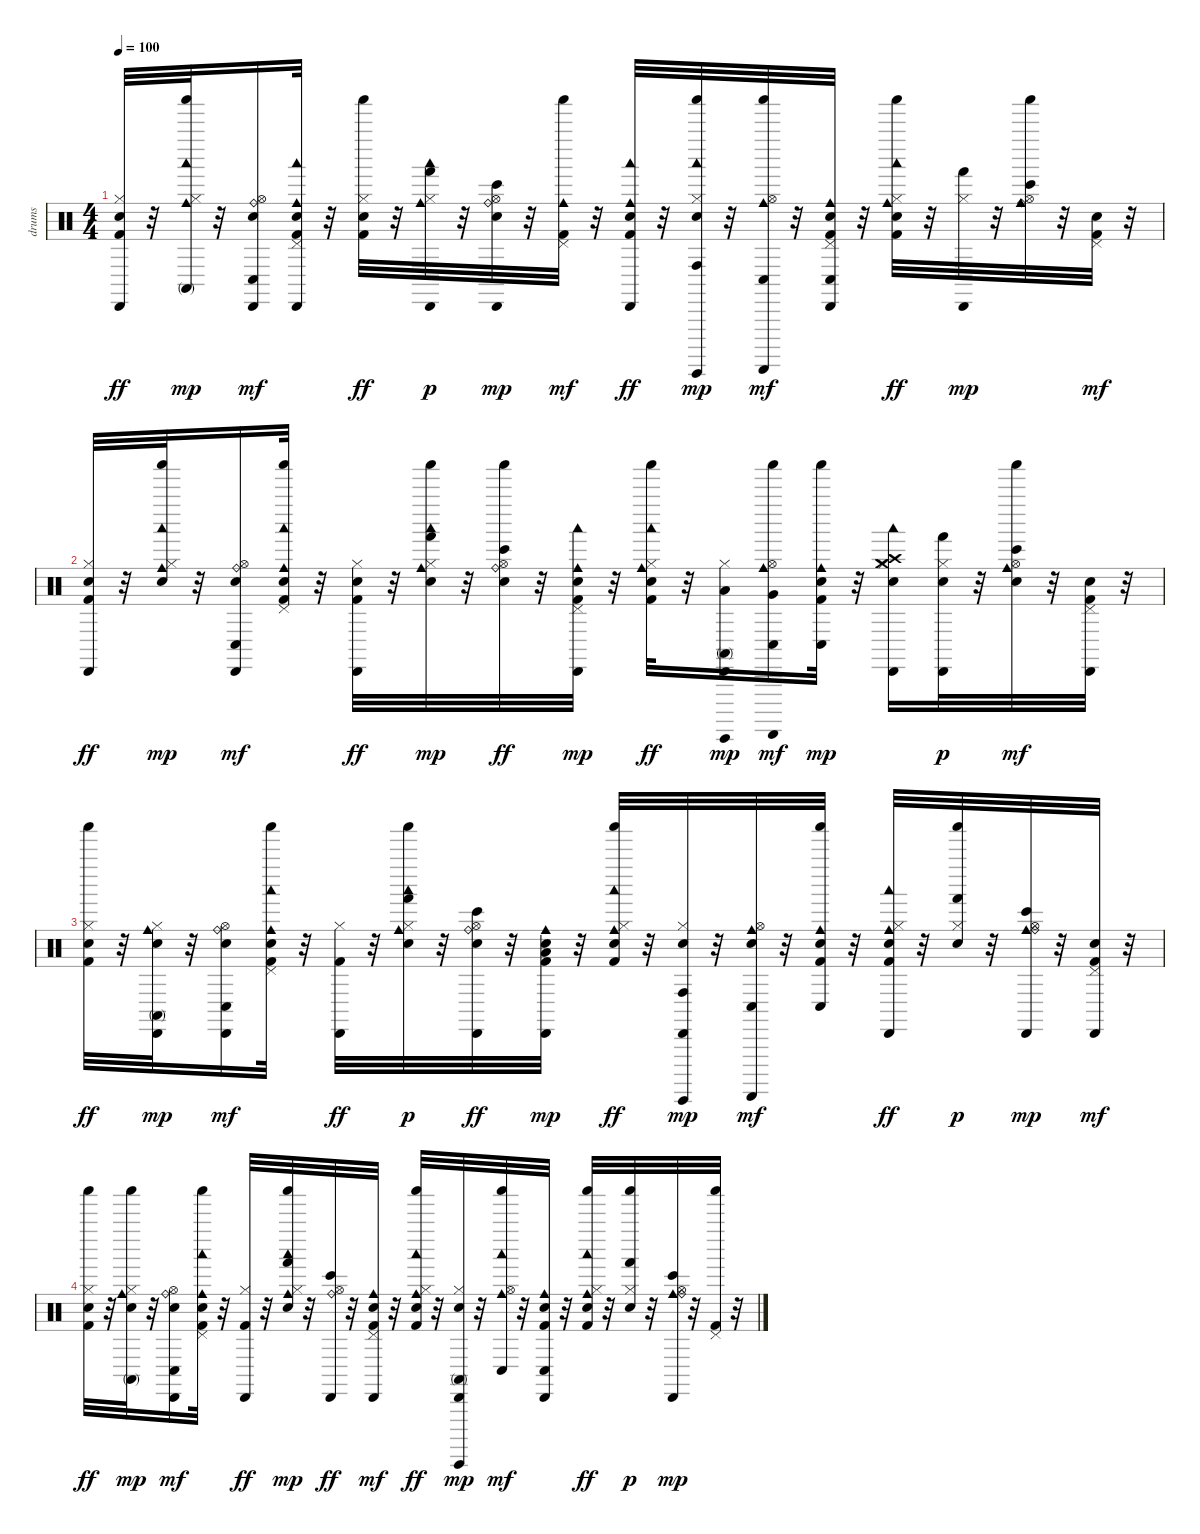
\track ("drums" "drums") {instrument percussion}
\staff {score}
\articulation defaults
\ts (4 4)
\tempo 100
\clef neutral
\ks c
("Snare (hit) 2" "Hi-Hat (closed)" "Cabasa (hit)" "Kick (hit) 2").32{dy ff} r.32 ("Hi-Hat (closed)" "Woodblock low (hit)" "Shaker (hit)" "Cowbell medium (hit)" "Conga high (mute)").32{dy mp} r.32 ("Snare (hit) 2" "Hi-Hat (open)" "Cabasa (hit)" "Ride (bell)" "Conga low (hit)").16{dy mf} ("Snare (hit) 2" "Pedal Hi-Hat (hit)" "Woodblock low (hit)" "Cabasa (hit)" "Cowbell medium (hit)" "Kick (hit) 2").32 r.32 ("Snare (hit) 2" "Hi-Hat (closed)" "Shaker (hit)" "Kick (hit) 2").32{dy ff} r.32 ("Hi-Hat (closed)" "Woodblock low (hit)" "Cabasa (hit)" "Cowbell medium (hit)" "Hand (hit)").32{dy p} r.32 ("Snare (hit) 2" "Hi-Hat (open)" "Cabasa (hit)" "Ride (bell)" "Bongo High (hit)").32{dy mp} r.32 ("Pedal Hi-Hat (hit)" "Shaker (hit)" "Cowbell medium (hit)" "Kick (hit) 2").32{dy mf} r.32 ("Snare (hit) 2" "Woodblock low (hit)" "Cabasa (hit)" "Cowbell medium (hit)" "Kick (hit) 2").32{dy ff} r.32 ("Snare (hit) 2" "Hi-Hat (closed)" "Woodblock low (hit)" "Shaker (hit)" "Guiro (hit)" "Conga high (hit)").32{dy mp} r.32 ("Hi-Hat (open)" "Shaker (hit)" "Guiro (scrap-return)" "Cowbell medium (hit)" "Conga low (hit)").32{dy mf} r.32 ("Snare (hit) 2" "Pedal Hi-Hat (hit)" "Cabasa (hit)" "Cowbell medium (hit)" "Kick (hit) 2" "Conga low (hit)").32 r.32 ("Snare (hit) 2" "Hi-Hat (closed)" "Woodblock low (hit)" "Shaker (hit)" "Cowbell medium (hit)" "Kick (hit) 2").32{dy ff} r.32 ("Hi-Hat (closed)" "Cabasa (hit)" "Hand (hit)").32{dy mp} r.32 ("Hi-Hat (open)" "Shaker (hit)" "Cowbell medium (hit)" "Ride (bell)" "Bongo High (hit)").32 r.32 ("Snare (hit) 2" "Pedal Hi-Hat (hit)" "Kick (hit) 2").32{dy mf} r.32 |
("Snare (hit) 2" "Hi-Hat (closed)" "Cabasa (hit)" "Kick (hit) 2").32{dy ff} r.32 ("Snare (hit) 2" "Hi-Hat (closed)" "Woodblock low (hit)" "Shaker (hit)" "Cowbell medium (hit)").32{dy mp} r.32 ("Snare (hit) 2" "Hi-Hat (open)" "Cabasa (hit)" "Ride (bell)" "Conga low (hit)").16{dy mf} ("Snare (hit) 2" "Pedal Hi-Hat (hit)" "Woodblock low (hit)" "Shaker (hit)" "Cowbell medium (hit)" "Kick (hit) 2").32 r.32 ("Snare (hit) 2" "Hi-Hat (closed)" "Cabasa (hit)" "Kick (hit) 2").32{dy ff} r.32 ("Snare (hit) 2" "Hi-Hat (closed)" "Woodblock low (hit)" "Shaker (hit)" "Cowbell medium (hit)" "Hand (hit)").32{dy mp} r.32 ("Snare (hit) 2" "Hi-Hat (open)" "Shaker (hit)" "Ride (bell)" "Bongo High (hit)").32{dy ff} r.32 ("Snare (hit) 2" "Pedal Hi-Hat (hit)" "Woodblock low (hit)" "Cabasa (hit)" "Cowbell medium (hit)" "Kick (hit) 2").32{dy mp} r.32 ("Snare (hit) 2" "Hi-Hat (closed)" "Woodblock low (hit)" "Shaker (hit)" "Cowbell medium (hit)" "Kick (hit) 2").32{dy ff} r.32 ("Low Tom (hit)" "Hi-Hat (closed)" "Cabasa (hit)" "Guiro (hit)" "Conga high (mute)").16{dy mp} ("Very Low Tom (hit)" "Hi-Hat (open)" "Shaker (hit)" "Guiro (scrap-return)" "Cowbell medium (hit)" "Conga low (hit)").16{dy mf} ("Snare (hit) 2" "Shaker (hit)" "Cowbell medium (hit)" "Kick (hit) 2" "Conga low (hit)").32{dy mp} r.32 ("Crash medium (hit)" "Crash high (hit)" "Snare (hit) 2" "Hi-Hat (closed)" "Woodblock low (hit)" "Cabasa (hit)").16 ("Snare (hit) 2" "Hi-Hat (closed)" "Cabasa (hit)" "Hand (hit)").32{dy p} r.32 ("Snare (hit) 2" "Hi-Hat (open)" "Shaker (hit)" "Cowbell medium (hit)" "Bongo High (hit)").32{dy mf} r.32 ("Snare (hit) 2" "Pedal Hi-Hat (hit)" "Cabasa (hit)" "Kick (hit) 2").32 r.32 |
("Snare (hit) 2" "Hi-Hat (closed)" "Shaker (hit)" "Kick (hit) 2").32{dy ff} r.32 ("Snare (hit) 2" "Hi-Hat (closed)" "Cabasa (hit)" "Cowbell medium (hit)" "Conga high (mute)").32{dy mp} r.32 ("Snare (hit) 2" "Hi-Hat (open)" "Cabasa (hit)" "Ride (bell)" "Conga low (hit)").16{dy mf} ("Snare (hit) 2" "Pedal Hi-Hat (hit)" "Woodblock low (hit)" "Shaker (hit)" "Cowbell medium (hit)" "Kick (hit) 2").32 r.32 ("Hi-Hat (closed)" "Cabasa (hit)" "Kick (hit) 2").32{dy ff} r.32 ("Snare (hit) 2" "Hi-Hat (closed)" "Woodblock low (hit)" "Shaker (hit)" "Cowbell medium (hit)" "Hand (hit)").32{dy p} r.32 ("Snare (hit) 2" "Hi-Hat (open)" "Cabasa (hit)" "Ride (bell)" "Bongo High (hit)").32{dy ff} r.32 ("Snare (hit) 2" "Cabasa (hit)" "Cowbell medium (hit)" "Kick (hit) 2" "Low Tom (hit)").32{dy mp} r.32 ("Snare (hit) 2" "Hi-Hat (closed)" "Woodblock low (hit)" "Shaker (hit)" "Cowbell medium (hit)" "Kick (hit) 2").32{dy ff} r.32 ("Snare (hit) 2" "Hi-Hat (closed)" "Cabasa (hit)" "Guiro (hit)" "Conga high (hit)").32{dy mp} r.32 ("Snare (hit) 2" "Hi-Hat (open)" "Guiro (scrap-return)" "Cowbell medium (hit)" "Conga low (hit)").32{dy mf} r.32 ("Snare (hit) 2" "Shaker (hit)" "Cowbell medium (hit)" "Kick (hit) 2" "Conga low (hit)").32 r.32 ("Snare (hit) 2" "Hi-Hat (closed)" "Woodblock low (hit)" "Cabasa (hit)" "Cowbell medium (hit)" "Kick (hit) 2").32{dy ff} r.32 ("Snare (hit) 2" "Hi-Hat (closed)" "Shaker (hit)" "Hand (hit)").32{dy p} r.32 ("Hi-Hat (open)" "Cabasa (hit)" "Cowbell medium (hit)" "Ride (bell)" "Bongo High (hit)").32{dy mp} r.32 ("Snare (hit) 2" "Pedal Hi-Hat (hit)" "Cabasa (hit)" "Kick (hit) 2").32{dy mf} r.32 |
("Snare (hit) 2" "Hi-Hat (closed)" "Shaker (hit)" "Kick (hit) 2").32{dy ff} r.32 ("Snare (hit) 2" "Hi-Hat (closed)" "Shaker (hit)" "Cowbell medium (hit)" "Conga high (mute)").32{dy mp} r.32 ("Snare (hit) 2" "Hi-Hat (open)" "Cabasa (hit)" "Ride (bell)" "Conga low (hit)").16{dy mf} ("Snare (hit) 2" "Pedal Hi-Hat (hit)" "Woodblock low (hit)" "Shaker (hit)" "Cowbell medium (hit)" "Kick (hit) 2").32 r.32 ("Hi-Hat (closed)" "Cabasa (hit)" "Kick (hit) 2").32{dy ff} r.32 ("Snare (hit) 2" "Hi-Hat (closed)" "Woodblock low (hit)" "Shaker (hit)" "Cowbell medium (hit)" "Hand (hit)").32{dy mp} r.32 ("Hi-Hat (open)" "Cabasa (hit)" "Ride (bell)" "Bongo High (hit)").32{dy ff} r.32 ("Snare (hit) 2" "Pedal Hi-Hat (hit)" "Cabasa (hit)" "Cowbell medium (hit)" "Kick (hit) 2").32{dy mf} r.32 ("Snare (hit) 2" "Hi-Hat (closed)" "Woodblock low (hit)" "Shaker (hit)" "Cowbell medium (hit)" "Kick (hit) 2").32{dy ff} r.32 ("Snare (hit) 2" "Hi-Hat (closed)" "Cabasa (hit)" "Guiro (hit)" "Conga high (mute)").32{dy mp} r.32 ("Hi-Hat (open)" "Woodblock low (hit)" "Shaker (hit)" "Cowbell medium (hit)" "Conga low (hit)").32{dy mf} r.32 ("Snare (hit) 2" "Cabasa (hit)" "Cowbell medium (hit)" "Kick (hit) 2" "Conga low (hit)").32 r.32 ("Snare (hit) 2" "Hi-Hat (closed)" "Woodblock low (hit)" "Shaker (hit)" "Cowbell medium (hit)" "Kick (hit) 2").32{dy ff} r.32 ("Snare (hit) 2" "Hi-Hat (closed)" "Shaker (hit)" "Hand (hit)").32{dy p} r.32 ("Hi-Hat (open)" "Cabasa (hit)" "Cowbell medium (hit)" "Ride (bell)" "Bongo High (hit)").32{dy mp} r.32 ("Pedal Hi-Hat (hit)" "Shaker (hit)" "Kick (hit) 2").32 r.32
